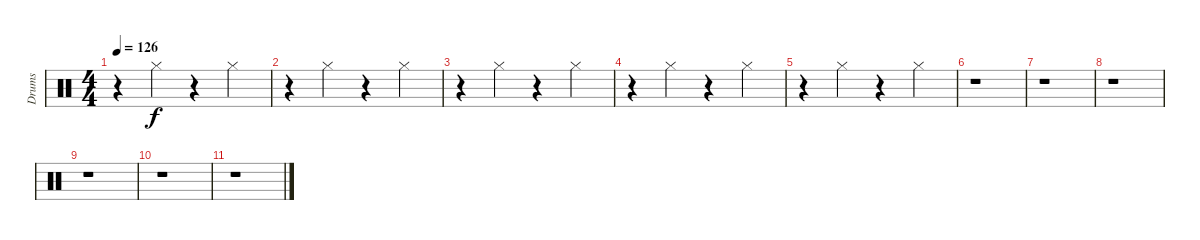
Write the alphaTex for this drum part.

\track ("Drums" "Drums") {instrument percussion}
\staff {score}
\articulation defaults
\ts (4 4)
\tempo 126
\clef neutral
\ks c
r.4{dy f} "Hi-Hat (closed)".4 r.4 "Hi-Hat (closed)".4 |
r.4 "Hi-Hat (closed)".4 r.4 "Hi-Hat (closed)".4 |
r.4 "Hi-Hat (closed)".4 r.4 "Hi-Hat (closed)".4 |
r.4 "Hi-Hat (closed)".4 r.4 "Hi-Hat (closed)".4 |
r.4 "Hi-Hat (closed)".4 r.4 "Hi-Hat (closed)".4 |
r.1 |
r.1 |
r.1 |
r.1 |
r.1 |
r.1
